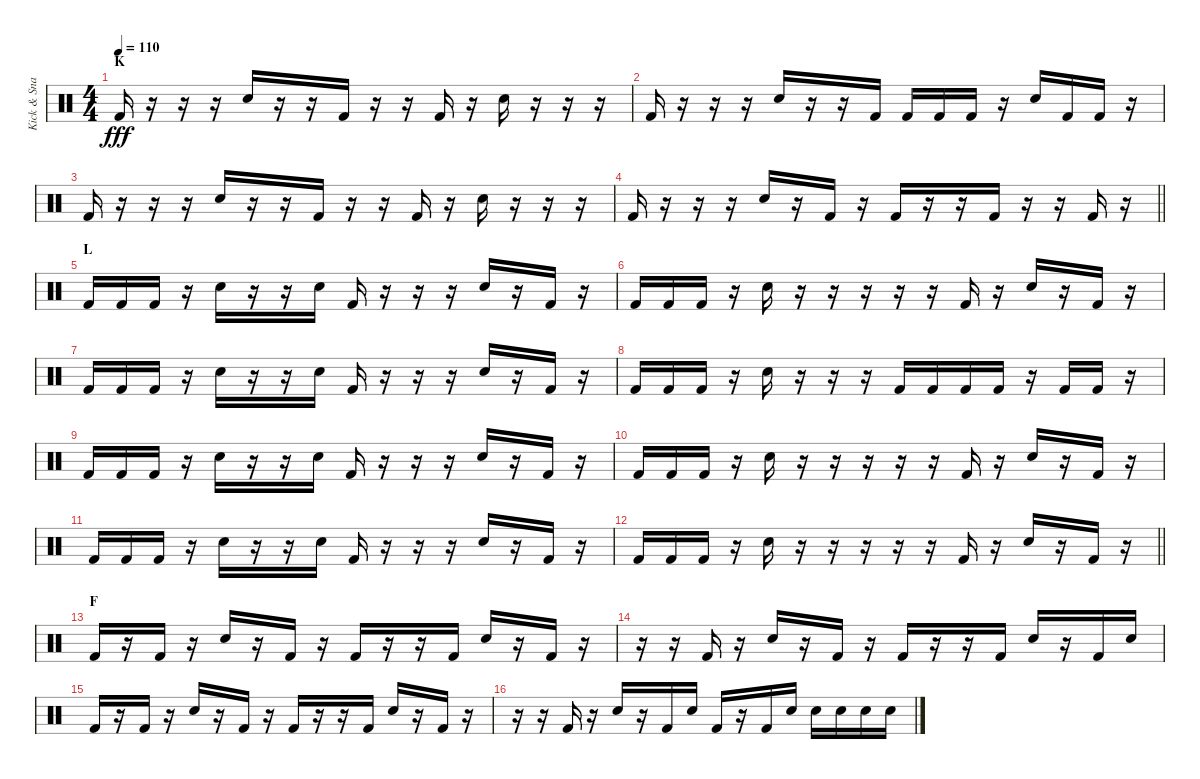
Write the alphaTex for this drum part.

\track ("Kick & Snare" "Kick & Sna") {instrument percussion}
\staff {score}
\articulation defaults
\ts (4 4)
\section ("" "K")
\tempo 110
\clef neutral
\ks c "Kick (hit) 2".16{dy fff}
r.16 r.16 r.16 "Electric Snare (hit)".16 r.16 r.16 "Kick (hit) 2".16 r.16 r.16 "Kick (hit) 2".16 r.16 "Electric Snare (hit)".16 r.16 r.16 r.16 |
"Kick (hit) 2".16 r.16 r.16 r.16 "Electric Snare (hit)".16 r.16 r.16 "Kick (hit) 2".16 "Kick (hit) 2".16 "Kick (hit) 2".16 "Kick (hit) 2".16 r.16 "Electric Snare (hit)".16 "Kick (hit) 2".16 "Kick (hit) 2".16 r.16 |
"Kick (hit) 2".16 r.16 r.16 r.16 "Electric Snare (hit)".16 r.16 r.16 "Kick (hit) 2".16 r.16 r.16 "Kick (hit) 2".16 r.16 "Electric Snare (hit)".16 r.16 r.16 r.16 |
\barLineRight lightlight "Kick (hit) 2".16
r.16 r.16 r.16 "Electric Snare (hit)".16 r.16 "Kick (hit) 2".16 r.16 "Kick (hit) 2".16 r.16 r.16 "Kick (hit) 2".16 r.16 r.16 "Kick (hit) 2".16 r.16 |
\section ("" "L ")
"Kick (hit) 2".16 "Kick (hit) 2".16 "Kick (hit) 2".16 r.16 "Electric Snare (hit)".16 r.16 r.16 "Electric Snare (hit)".16 "Kick (hit) 2".16 r.16 r.16 r.16 "Electric Snare (hit)".16 r.16 "Kick (hit) 2".16 r.16 |
"Kick (hit) 2".16 "Kick (hit) 2".16 "Kick (hit) 2".16 r.16 "Electric Snare (hit)".16 r.16 r.16 r.16 r.16 r.16 "Kick (hit) 2".16 r.16 "Electric Snare (hit)".16 r.16 "Kick (hit) 2".16 r.16 |
"Kick (hit) 2".16 "Kick (hit) 2".16 "Kick (hit) 2".16 r.16 "Electric Snare (hit)".16 r.16 r.16 "Electric Snare (hit)".16 "Kick (hit) 2".16 r.16 r.16 r.16 "Electric Snare (hit)".16 r.16 "Kick (hit) 2".16 r.16 |
"Kick (hit) 2".16 "Kick (hit) 2".16 "Kick (hit) 2".16 r.16 "Electric Snare (hit)".16 r.16 r.16 r.16 "Kick (hit) 2".16 "Kick (hit) 2".16 "Kick (hit) 2".16 "Kick (hit) 2".16 r.16 "Kick (hit) 2".16 "Kick (hit) 2".16 r.16 |
"Kick (hit) 2".16 "Kick (hit) 2".16 "Kick (hit) 2".16 r.16 "Electric Snare (hit)".16 r.16 r.16 "Electric Snare (hit)".16 "Kick (hit) 2".16 r.16 r.16 r.16 "Electric Snare (hit)".16 r.16 "Kick (hit) 2".16 r.16 |
"Kick (hit) 2".16 "Kick (hit) 2".16 "Kick (hit) 2".16 r.16 "Electric Snare (hit)".16 r.16 r.16 r.16 r.16 r.16 "Kick (hit) 2".16 r.16 "Electric Snare (hit)".16 r.16 "Kick (hit) 2".16 r.16 |
"Kick (hit) 2".16 "Kick (hit) 2".16 "Kick (hit) 2".16 r.16 "Electric Snare (hit)".16 r.16 r.16 "Electric Snare (hit)".16 "Kick (hit) 2".16 r.16 r.16 r.16 "Electric Snare (hit)".16 r.16 "Kick (hit) 2".16 r.16 |
\barLineRight lightlight "Kick (hit) 2".16 "Kick (hit) 2".16 "Kick (hit) 2".16
r.16 "Electric Snare (hit)".16 r.16 r.16 r.16 r.16 r.16 "Kick (hit) 2".16 r.16 "Electric Snare (hit)".16 r.16 "Kick (hit) 2".16 r.16 |
\section ("" "F")
"Kick (hit) 2".16 r.16 "Kick (hit) 2".16 r.16 "Snare (hit) 2".16 r.16 "Kick (hit) 2".16 r.16 "Kick (hit) 2".16 r.16 r.16 "Kick (hit) 2".16 "Snare (hit) 2".16 r.16 "Kick (hit) 2".16 r.16 |
r.16 r.16 "Kick (hit) 2".16 r.16 "Snare (hit) 2".16 r.16 "Kick (hit) 2".16 r.16 "Kick (hit) 2".16 r.16 r.16 "Kick (hit) 2".16 "Snare (hit) 2".16 r.16 "Kick (hit) 2".16 "Snare (hit) 2".16 |
"Kick (hit) 2".16 r.16 "Kick (hit) 2".16 r.16 "Snare (hit) 2".16 r.16 "Kick (hit) 2".16 r.16 "Kick (hit) 2".16 r.16 r.16 "Kick (hit) 2".16 "Snare (hit) 2".16 r.16 "Kick (hit) 2".16 r.16 |
r.16 r.16 "Kick (hit) 2".16 r.16 "Snare (hit) 2".16 r.16 "Kick (hit) 2".16 "Snare (hit) 2".16 "Kick (hit) 2".16 r.16 "Kick (hit) 2".16 "Snare (hit) 2".16 "Snare (hit) 2".16 "Snare (hit) 2".16 "Snare (hit) 2".16 "Snare (hit) 2".16
